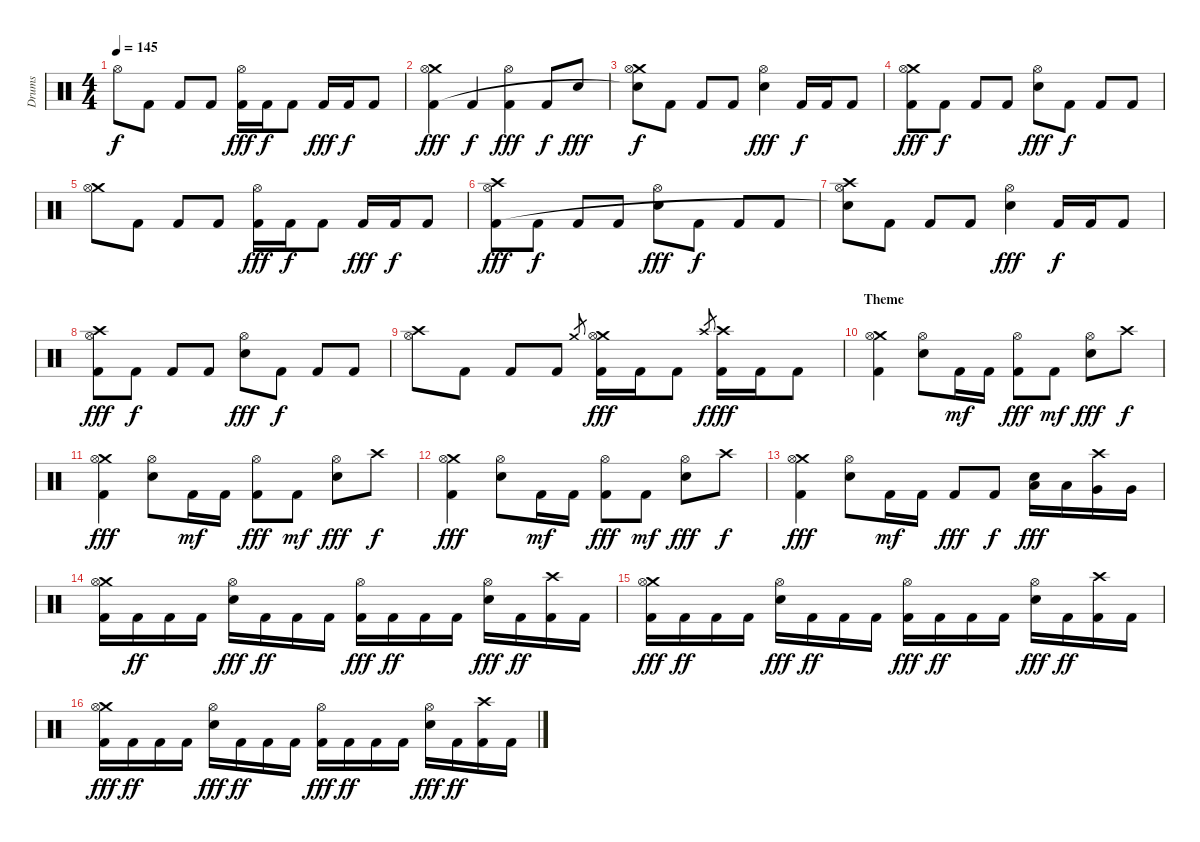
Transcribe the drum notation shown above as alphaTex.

\track ("Drums" "Drums") {instrument percussion}
\staff {score}
\articulation defaults
\ts (4 4)
\tempo 145
\clef neutral
\ks c "Hi-Hat (open)".8{dy f} "Kick (hit) 2".8 "Kick (hit) 2".8 "Kick (hit) 2".8
("Hi-Hat (open)" "Kick (hit) 2").16{dy fff} "Kick (hit) 2".16{dy f} "Kick (hit) 2".8 "Kick (hit) 2".16{dy fff} "Kick (hit) 2".16{dy f} "Kick (hit) 2".8 |
("Crash medium (hit)" "Hi-Hat (open)" "Kick (hit) 2").4{dy fff} "Kick (hit) 2".4{dy f} ("Hi-Hat (open)" "Kick (hit) 2").4{dy fff} "Kick (hit) 2".8{dy f} "Snare (hit) 2".8{dy fff} |
("Crash medium (hit)" "Hi-Hat (open)" "Snare (hit)"{t}).8{dy f} "Kick (hit) 2".8 "Kick (hit) 2".8 "Kick (hit) 2".8 ("Hi-Hat (open)" "Snare (hit) 2").4{dy fff} "Kick (hit) 2".16{dy f} "Kick (hit) 2".16 "Kick (hit) 2".8 |
("Crash medium (hit)" "Hi-Hat (open)" "Kick (hit) 2").8{dy fff} "Kick (hit) 2".8{dy f} "Kick (hit) 2".8 "Kick (hit) 2".8 ("Hi-Hat (open)" "Snare (hit) 2").8{dy fff} "Kick (hit) 2".8{dy f} "Kick (hit) 2".8 "Kick (hit) 2".8 |
("Crash medium (hit)" "Hi-Hat (open)").8 "Kick (hit) 2".8 "Kick (hit) 2".8 "Kick (hit) 2".8 ("Hi-Hat (open)" "Kick (hit) 2").16{dy fff} "Kick (hit) 2".16{dy f} "Kick (hit) 2".8 "Kick (hit) 2".16{dy fff} "Kick (hit) 2".16{dy f} "Kick (hit) 2".8 |
("Crash high (hit)" "Hi-Hat (open)" "Kick (hit) 2").8{dy fff} "Kick (hit) 2".8{dy f} "Kick (hit) 2".8 "Kick (hit) 2".8 ("Hi-Hat (open)" "Snare (hit) 2").8{dy fff} "Kick (hit) 2".8{dy f} "Kick (hit) 2".8 "Kick (hit) 2".8 |
("Crash high (hit)" "Hi-Hat (open)" "Snare (hit)"{t}).8 "Kick (hit) 2".8 "Kick (hit) 2".8 "Kick (hit) 2".8 ("Hi-Hat (open)" "Snare (hit) 2").4{dy fff} "Kick (hit) 2".16{dy f} "Kick (hit) 2".16 "Kick (hit) 2".8 |
("Crash high (hit)" "Hi-Hat (open)" "Kick (hit) 2").8{dy fff} "Kick (hit) 2".8{dy f} "Kick (hit) 2".8 "Kick (hit) 2".8 ("Hi-Hat (open)" "Snare (hit) 2").8{dy fff} "Kick (hit) 2".8{dy f} "Kick (hit) 2".8 "Kick (hit) 2".8 |
("Crash high (hit)" "Hi-Hat (open)").8 "Kick (hit) 2".8 "Kick (hit) 2".8 "Kick (hit) 2".8 "Crash medium (hit)".8{gr} ("Crash medium (hit)" "Hi-Hat (open)" "Kick (hit) 2").16{dy fff} "Kick (hit) 2".16 "Kick (hit) 2".8 "Crash high (hit)".8{gr dy f} ("Crash high (hit)" "Kick (hit) 2").16{dy fff} "Kick (hit) 2".16 "Kick (hit) 2".8 |
\section ("" "Theme")
("Crash medium (hit)" "Hi-Hat (open)" "Kick (hit) 2").4 ("Hi-Hat (open)" "Snare (hit) 2").8 "Kick (hit) 2".16{dy mf} "Kick (hit) 2".16 ("Hi-Hat (open)" "Kick (hit) 2").8{dy fff} "Kick (hit) 2".8{dy mf} ("Hi-Hat (open)" "Snare (hit) 2").8{dy fff} "Crash high (hit)".8{dy f} |
("Crash medium (hit)" "Hi-Hat (open)" "Kick (hit) 2").4{dy fff} ("Hi-Hat (open)" "Snare (hit) 2").8 "Kick (hit) 2".16{dy mf} "Kick (hit) 2".16 ("Hi-Hat (open)" "Kick (hit) 2").8{dy fff} "Kick (hit) 2".8{dy mf} ("Hi-Hat (open)" "Snare (hit) 2").8{dy fff} "Crash high (hit)".8{dy f} |
("Crash medium (hit)" "Hi-Hat (open)" "Kick (hit) 2").4{dy fff} ("Hi-Hat (open)" "Snare (hit) 2").8 "Kick (hit) 2".16{dy mf} "Kick (hit) 2".16 ("Hi-Hat (open)" "Kick (hit) 2").8{dy fff} "Kick (hit) 2".8{dy mf} ("Hi-Hat (open)" "Snare (hit) 2").8{dy fff} "Crash high (hit)".8{dy f} |
("Crash medium (hit)" "Hi-Hat (open)" "Kick (hit) 2").4{dy fff} ("Hi-Hat (open)" "Snare (hit) 2").8 "Kick (hit) 2".16{dy mf} "Kick (hit) 2".16 "Kick (hit) 2".8{dy fff} "Kick (hit) 2".8{dy f} ("Low Tom (hit)" "Snare (hit) 2").16{dy fff} "Low Tom (hit)".16 ("Crash high (hit)" "Very Low Tom (hit)").16 "Very Low Tom (hit)".16 |
("Crash medium (hit)" "Hi-Hat (open)" "Kick (hit) 2").16 "Kick (hit) 2".16{dy ff} "Kick (hit) 2".16 "Kick (hit) 2".16 ("Hi-Hat (open)" "Snare (hit) 2").16{dy fff} "Kick (hit) 2".16{dy ff} "Kick (hit) 2".16 "Kick (hit) 2".16 ("Hi-Hat (open)" "Kick (hit) 2").16{dy fff} "Kick (hit) 2".16{dy ff} "Kick (hit) 2".16 "Kick (hit) 2".16 ("Hi-Hat (open)" "Snare (hit) 2").16{dy fff} "Kick (hit) 2".16{dy ff} ("Crash high (hit)" "Kick (hit) 2").16 "Kick (hit) 2".16 |
("Crash medium (hit)" "Hi-Hat (open)" "Kick (hit) 2").16{dy fff} "Kick (hit) 2".16{dy ff} "Kick (hit) 2".16 "Kick (hit) 2".16 ("Hi-Hat (open)" "Snare (hit) 2").16{dy fff} "Kick (hit) 2".16{dy ff} "Kick (hit) 2".16 "Kick (hit) 2".16 ("Hi-Hat (open)" "Kick (hit) 2").16{dy fff} "Kick (hit) 2".16{dy ff} "Kick (hit) 2".16 "Kick (hit) 2".16 ("Hi-Hat (open)" "Snare (hit) 2").16{dy fff} "Kick (hit) 2".16{dy ff} ("Crash high (hit)" "Kick (hit) 2").16 "Kick (hit) 2".16 |
("Crash medium (hit)" "Hi-Hat (open)" "Kick (hit) 2").16{dy fff} "Kick (hit) 2".16{dy ff} "Kick (hit) 2".16 "Kick (hit) 2".16 ("Hi-Hat (open)" "Snare (hit) 2").16{dy fff} "Kick (hit) 2".16{dy ff} "Kick (hit) 2".16 "Kick (hit) 2".16 ("Hi-Hat (open)" "Kick (hit) 2").16{dy fff} "Kick (hit) 2".16{dy ff} "Kick (hit) 2".16 "Kick (hit) 2".16 ("Hi-Hat (open)" "Snare (hit) 2").16{dy fff} "Kick (hit) 2".16{dy ff} ("Crash high (hit)" "Kick (hit) 2").16 "Kick (hit) 2".16
